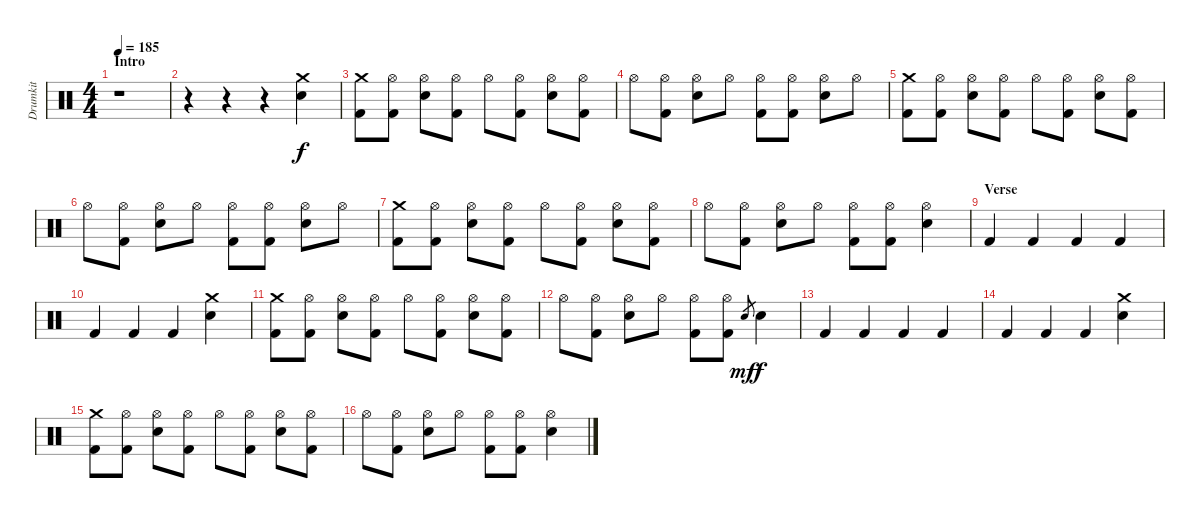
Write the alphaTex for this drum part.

\track ("Drumkit" "Drumkit") {instrument percussion}
\staff {score}
\articulation defaults
\ts (4 4)
\section ("" "Intro")
\tempo 185
\clef neutral
\ks c
r.1{dy f} |
r.4 r.4 r.4 ("Snare (hit) 2" "Crash medium (hit)").4 |
("Crash medium (hit)" "Kick (hit) 2").8 ("Hi-Hat (open)" "Kick (hit) 2").8 ("Hi-Hat (open)" "Snare (hit) 2").8 ("Hi-Hat (open)" "Kick (hit) 2").8 "Hi-Hat (open)".8 ("Hi-Hat (open)" "Kick (hit) 2").8 ("Hi-Hat (open)" "Snare (hit) 2").8 ("Hi-Hat (open)" "Kick (hit) 2").8 |
"Hi-Hat (open)".8 ("Hi-Hat (open)" "Kick (hit) 2").8 ("Hi-Hat (open)" "Snare (hit) 2").8 "Hi-Hat (open)".8 ("Hi-Hat (open)" "Kick (hit) 2").8 ("Hi-Hat (open)" "Kick (hit) 2").8 ("Hi-Hat (open)" "Snare (hit) 2").8 "Hi-Hat (open)".8 |
("Crash medium (hit)" "Kick (hit) 2").8 ("Hi-Hat (open)" "Kick (hit) 2").8 ("Hi-Hat (open)" "Snare (hit) 2").8 ("Hi-Hat (open)" "Kick (hit) 2").8 "Hi-Hat (open)".8 ("Hi-Hat (open)" "Kick (hit) 2").8 ("Hi-Hat (open)" "Snare (hit) 2").8 ("Hi-Hat (open)" "Kick (hit) 2").8 |
"Hi-Hat (open)".8 ("Hi-Hat (open)" "Kick (hit) 2").8 ("Hi-Hat (open)" "Snare (hit) 2").8 "Hi-Hat (open)".8 ("Hi-Hat (open)" "Kick (hit) 2").8 ("Hi-Hat (open)" "Kick (hit) 2").8 ("Hi-Hat (open)" "Snare (hit) 2").8 "Hi-Hat (open)".8 |
("Crash medium (hit)" "Kick (hit) 2").8 ("Hi-Hat (open)" "Kick (hit) 2").8 ("Hi-Hat (open)" "Snare (hit) 2").8 ("Hi-Hat (open)" "Kick (hit) 2").8 "Hi-Hat (open)".8 ("Hi-Hat (open)" "Kick (hit) 2").8 ("Hi-Hat (open)" "Snare (hit) 2").8 ("Hi-Hat (open)" "Kick (hit) 2").8 |
"Hi-Hat (open)".8 ("Hi-Hat (open)" "Kick (hit) 2").8 ("Hi-Hat (open)" "Snare (hit) 2").8 "Hi-Hat (open)".8 ("Hi-Hat (open)" "Kick (hit) 2").8 ("Hi-Hat (open)" "Kick (hit) 2").8 ("Hi-Hat (open)" "Snare (hit) 2").4 |
\section ("" "Verse")
"Kick (hit) 2".4 "Kick (hit) 2".4 "Kick (hit) 2".4 "Kick (hit) 2".4 |
"Kick (hit) 2".4 "Kick (hit) 2".4 "Kick (hit) 2".4 ("Snare (hit) 2" "Crash medium (hit)").4 |
("Crash medium (hit)" "Kick (hit) 2").8 ("Hi-Hat (open)" "Kick (hit) 2").8 ("Hi-Hat (open)" "Snare (hit) 2").8 ("Hi-Hat (open)" "Kick (hit) 2").8 "Hi-Hat (open)".8 ("Hi-Hat (open)" "Kick (hit) 2").8 ("Hi-Hat (open)" "Snare (hit) 2").8 ("Hi-Hat (open)" "Kick (hit) 2").8 |
"Hi-Hat (open)".8 ("Hi-Hat (open)" "Kick (hit) 2").8 ("Hi-Hat (open)" "Snare (hit) 2").8 "Hi-Hat (open)".8 ("Hi-Hat (open)" "Kick (hit) 2").8 ("Hi-Hat (open)" "Kick (hit) 2").8 "Snare (hit)".8{gr dy mf} "Snare (hit) 2".4{dy f} |
"Kick (hit) 2".4 "Kick (hit) 2".4 "Kick (hit) 2".4 "Kick (hit) 2".4 |
"Kick (hit) 2".4 "Kick (hit) 2".4 "Kick (hit) 2".4 ("Snare (hit) 2" "Crash medium (hit)").4 |
("Crash medium (hit)" "Kick (hit) 2").8 ("Hi-Hat (open)" "Kick (hit) 2").8 ("Hi-Hat (open)" "Snare (hit) 2").8 ("Hi-Hat (open)" "Kick (hit) 2").8 "Hi-Hat (open)".8 ("Hi-Hat (open)" "Kick (hit) 2").8 ("Hi-Hat (open)" "Snare (hit) 2").8 ("Hi-Hat (open)" "Kick (hit) 2").8 |
"Hi-Hat (open)".8 ("Hi-Hat (open)" "Kick (hit) 2").8 ("Hi-Hat (open)" "Snare (hit) 2").8 "Hi-Hat (open)".8 ("Hi-Hat (open)" "Kick (hit) 2").8 ("Hi-Hat (open)" "Kick (hit) 2").8 ("Hi-Hat (open)" "Snare (hit) 2").4
